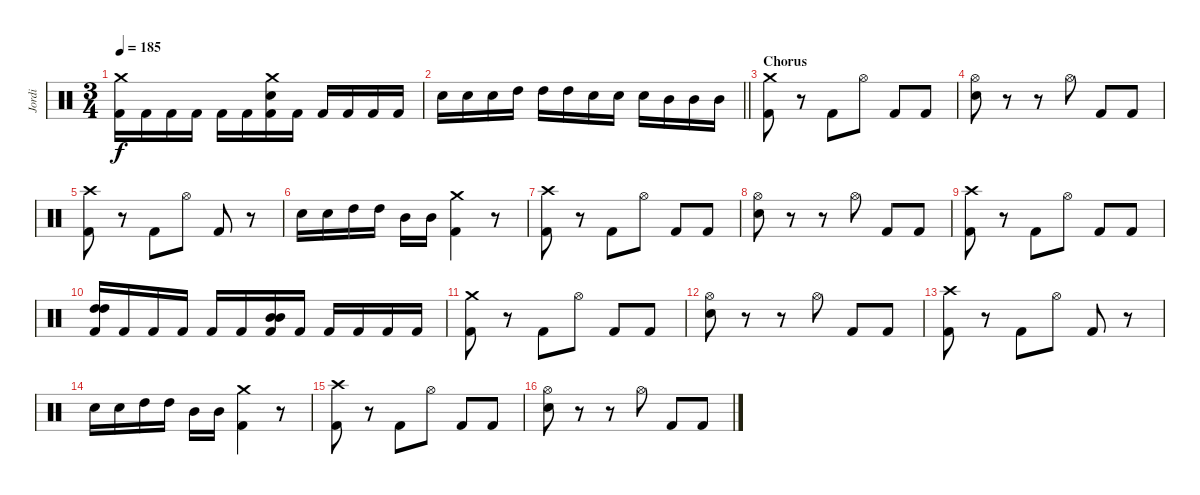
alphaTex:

\track ("Jordi" "Jordi") {instrument percussion}
\staff {score}
\articulation defaults
\ts (3 4)
\tempo 185
\clef neutral
\ks c
("Crash medium (hit)" "Kick (hit) 2").16{dy f} "Kick (hit) 2".16 "Kick (hit) 2".16 "Kick (hit) 2".16 "Kick (hit) 2".16 "Kick (hit) 2".16 ("Crash medium (hit)" "Snare (hit) 2" "Kick (hit) 2").16 "Kick (hit) 2".16 "Kick (hit) 2".16 "Kick (hit) 2".16 "Kick (hit) 2".16 "Kick (hit) 2".16 |
\barLineRight lightlight "Snare (hit) 2".16 "Snare (hit) 2".16 "Snare (hit) 2".16 "High Tom (hit)".16 "High Tom (hit)".16 "High Tom (hit)".16 "Snare (hit) 2".16 "Snare (hit) 2".16 "Snare (hit) 2".16 "Mid Tom (hit)".16 "Mid Tom (hit)".16 "Mid Tom (hit)".16
|
\section ("" "Chorus")
("Crash medium (hit)" "Kick (hit) 2").8 r.8 "Kick (hit) 2".8 "Hi-Hat (open)".8 "Kick (hit) 2".8 "Kick (hit) 2".8 |
("Hi-Hat (open)" "Snare (hit) 2").8 r.8 r.8 "Hi-Hat (open)".8 "Kick (hit) 2".8 "Kick (hit) 2".8 |
("Crash high (hit)" "Kick (hit) 2").8 r.8 "Kick (hit) 2".8 "Hi-Hat (open)".8 "Kick (hit) 2".8 r.8 |
"Snare (hit) 2".16 "Snare (hit) 2".16 "High Tom (hit)".16 "High Tom (hit)".16 "Mid Tom (hit)".16 "Mid Tom (hit)".16 ("Crash medium (hit)" "Kick (hit) 2").4 r.8 |
("Crash high (hit)" "Kick (hit) 2").8 r.8 "Kick (hit) 2".8 "Hi-Hat (open)".8 "Kick (hit) 2".8 "Kick (hit) 2".8 |
("Hi-Hat (open)" "Snare (hit) 2").8 r.8 r.8 "Hi-Hat (open)".8 "Kick (hit) 2".8 "Kick (hit) 2".8 |
("Crash high (hit)" "Kick (hit) 2").8 r.8 "Kick (hit) 2".8 "Hi-Hat (open)".8 "Kick (hit) 2".8 "Kick (hit) 2".8 |
("High Tom (hit)" "High Tom (hit)" "Kick (hit) 2").16 "Kick (hit) 2".16 "Kick (hit) 2".16 "Kick (hit) 2".16 "Kick (hit) 2".16 "Kick (hit) 2".16 ("Mid Tom (hit)" "Mid Tom (hit)" "Kick (hit) 2").16 "Kick (hit) 2".16 "Kick (hit) 2".16 "Kick (hit) 2".16 "Kick (hit) 2".16 "Kick (hit) 2".16 |
("Crash medium (hit)" "Kick (hit) 2").8 r.8 "Kick (hit) 2".8 "Hi-Hat (open)".8 "Kick (hit) 2".8 "Kick (hit) 2".8 |
("Hi-Hat (open)" "Snare (hit) 2").8 r.8 r.8 "Hi-Hat (open)".8 "Kick (hit) 2".8 "Kick (hit) 2".8 |
("Crash high (hit)" "Kick (hit) 2").8 r.8 "Kick (hit) 2".8 "Hi-Hat (open)".8 "Kick (hit) 2".8 r.8 |
"Snare (hit) 2".16 "Snare (hit) 2".16 "High Tom (hit)".16 "High Tom (hit)".16 "Mid Tom (hit)".16 "Mid Tom (hit)".16 ("Crash medium (hit)" "Kick (hit) 2").4 r.8 |
("Crash high (hit)" "Kick (hit) 2").8 r.8 "Kick (hit) 2".8 "Hi-Hat (open)".8 "Kick (hit) 2".8 "Kick (hit) 2".8 |
("Hi-Hat (open)" "Snare (hit) 2").8 r.8 r.8 "Hi-Hat (open)".8 "Kick (hit) 2".8 "Kick (hit) 2".8
